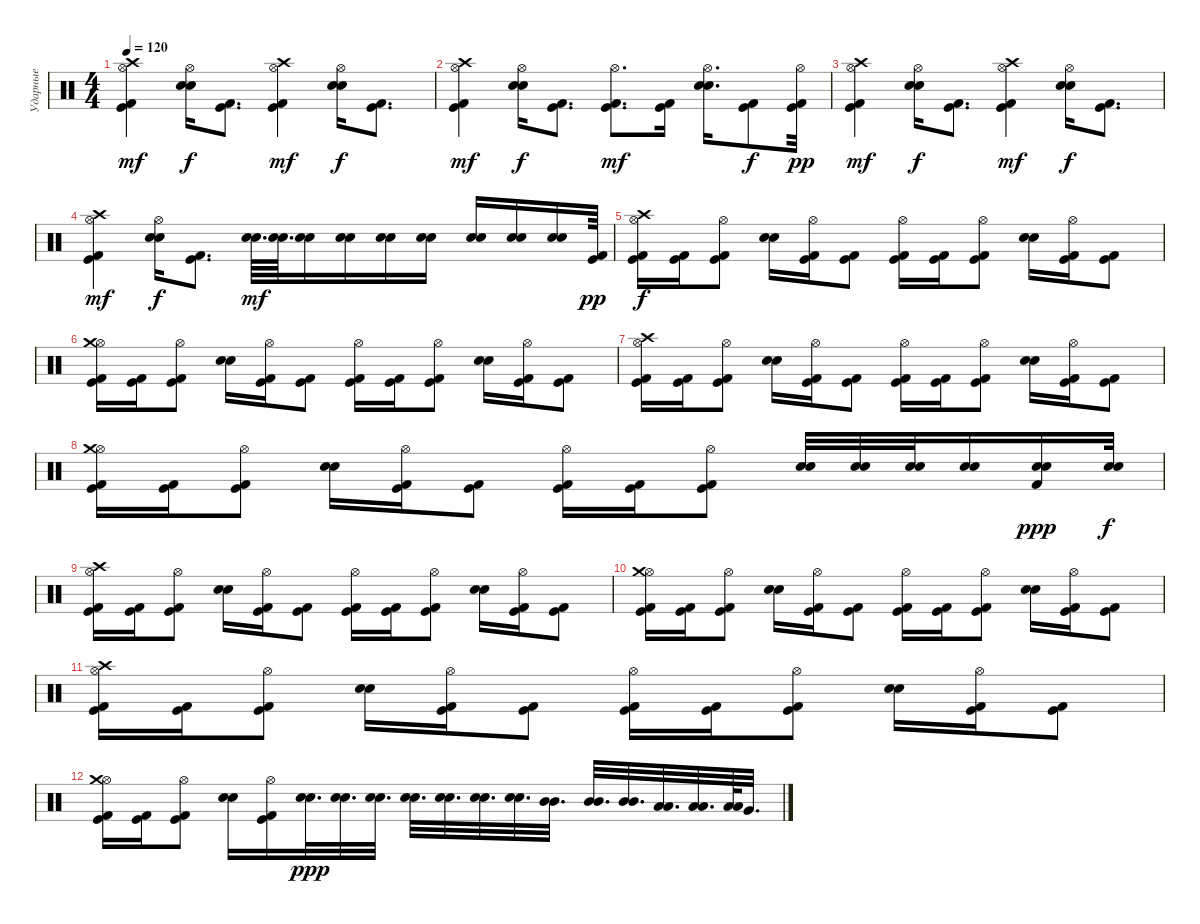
\track ("Ударные" "Ударные") {instrument percussion}
\staff {score}
\articulation defaults
\ts (4 4)
\tempo 120
\clef neutral
\ks c
("Kick (hit) 2" "Kick (hit)" "Hi-Hat (open)" "Crash high (hit)").4{dy mf} ("Snare (hit) 2" "Electric Snare (hit)" "Hi-Hat (open)").16{dy f} ("Kick (hit) 2" "Kick (hit)").8{d} ("Kick (hit) 2" "Kick (hit)" "Hi-Hat (open)" "Crash high (hit)").4{dy mf} ("Snare (hit) 2" "Electric Snare (hit)" "Hi-Hat (open)").16{dy f} ("Kick (hit) 2" "Kick (hit)").8{d} |
("Kick (hit) 2" "Kick (hit)" "Hi-Hat (open)" "Crash high (hit)").4{dy mf} ("Snare (hit) 2" "Electric Snare (hit)" "Hi-Hat (open)").16{dy f} ("Kick (hit) 2" "Kick (hit)").8{d} ("Kick (hit) 2" "Kick (hit)" "Hi-Hat (open)").8{d dy mf} ("Kick (hit) 2" "Kick (hit)").16 ("Snare (hit) 2" "Electric Snare (hit)" "Hi-Hat (open)").16{d} ("Kick (hit) 2" "Kick (hit)").8{dy f} ("Kick (hit) 2" "Kick (hit)" "Hi-Hat (open)").32{dy pp} |
("Kick (hit) 2" "Kick (hit)" "Hi-Hat (open)" "Crash high (hit)").4{dy mf} ("Snare (hit) 2" "Electric Snare (hit)" "Hi-Hat (open)").16{dy f} ("Kick (hit) 2" "Kick (hit)").8{d} ("Kick (hit) 2" "Kick (hit)" "Hi-Hat (open)" "Crash high (hit)").4{dy mf} ("Snare (hit) 2" "Electric Snare (hit)" "Hi-Hat (open)").16{dy f} ("Kick (hit) 2" "Kick (hit)").8{d} |
("Kick (hit) 2" "Kick (hit)" "Hi-Hat (open)" "Crash high (hit)").4{dy mf} ("Snare (hit) 2" "Electric Snare (hit)" "Hi-Hat (open)").16{dy f} ("Kick (hit) 2" "Kick (hit)").8{d} ("Snare (hit) 2" "Electric Snare (hit)").64{d dy mf} ("Snare (hit) 2" "Electric Snare (hit)").64{d} ("Snare (hit) 2" "Electric Snare (hit)").16 ("Snare (hit) 2" "Electric Snare (hit)").16 ("Snare (hit) 2" "Electric Snare (hit)").16 ("Snare (hit) 2" "Electric Snare (hit)").16 ("Snare (hit) 2" "Electric Snare (hit)").16 ("Snare (hit) 2" "Electric Snare (hit)").16 ("Snare (hit) 2" "Electric Snare (hit)").16 ("Kick (hit) 2" "Kick (hit)").64{dy pp} |
("Kick (hit) 2" "Kick (hit)" "Hi-Hat (open)" "Crash high (hit)").16{dy f} ("Kick (hit) 2" "Kick (hit)").16 ("Kick (hit) 2" "Kick (hit)" "Hi-Hat (open)").8 ("Snare (hit) 2" "Electric Snare (hit)").16 ("Kick (hit) 2" "Kick (hit)" "Hi-Hat (open)").16 ("Kick (hit) 2" "Kick (hit)").8 ("Kick (hit) 2" "Kick (hit)" "Hi-Hat (open)").16 ("Kick (hit)" "Kick (hit) 2").16 ("Kick (hit)" "Kick (hit) 2" "Hi-Hat (open)").8 ("Snare (hit) 2" "Electric Snare (hit)").16 ("Kick (hit) 2" "Kick (hit)" "Hi-Hat (open)").16 ("Kick (hit) 2" "Kick (hit)").8 |
("Kick (hit) 2" "Kick (hit)" "Hi-Hat (open)" "Crash medium (hit)").16 ("Kick (hit) 2" "Kick (hit)").16 ("Kick (hit) 2" "Kick (hit)" "Hi-Hat (open)").8 ("Snare (hit) 2" "Electric Snare (hit)").16 ("Kick (hit) 2" "Kick (hit)" "Hi-Hat (open)").16 ("Kick (hit) 2" "Kick (hit)").8 ("Kick (hit) 2" "Kick (hit)" "Hi-Hat (open)").16 ("Kick (hit)" "Kick (hit) 2").16 ("Kick (hit)" "Kick (hit) 2" "Hi-Hat (open)").8 ("Snare (hit) 2" "Electric Snare (hit)").16 ("Kick (hit) 2" "Kick (hit)" "Hi-Hat (open)").16 ("Kick (hit) 2" "Kick (hit)").8 |
("Kick (hit) 2" "Kick (hit)" "Hi-Hat (open)" "Crash high (hit)").16 ("Kick (hit) 2" "Kick (hit)").16 ("Kick (hit) 2" "Kick (hit)" "Hi-Hat (open)").8 ("Snare (hit) 2" "Electric Snare (hit)").16 ("Kick (hit) 2" "Kick (hit)" "Hi-Hat (open)").16 ("Kick (hit) 2" "Kick (hit)").8 ("Kick (hit) 2" "Kick (hit)" "Hi-Hat (open)").16 ("Kick (hit)" "Kick (hit) 2").16 ("Kick (hit)" "Kick (hit) 2" "Hi-Hat (open)").8 ("Snare (hit) 2" "Electric Snare (hit)").16 ("Kick (hit) 2" "Kick (hit)" "Hi-Hat (open)").16 ("Kick (hit) 2" "Kick (hit)").8 |
("Kick (hit) 2" "Kick (hit)" "Hi-Hat (open)" "Crash medium (hit)").16 ("Kick (hit) 2" "Kick (hit)").16 ("Kick (hit) 2" "Kick (hit)" "Hi-Hat (open)").8 ("Snare (hit) 2" "Electric Snare (hit)").16 ("Kick (hit) 2" "Kick (hit)" "Hi-Hat (open)").16 ("Kick (hit) 2" "Kick (hit)").8 ("Kick (hit) 2" "Kick (hit)" "Hi-Hat (open)").16 ("Kick (hit)" "Kick (hit) 2").16 ("Kick (hit)" "Kick (hit) 2" "Hi-Hat (open)").8 ("Snare (hit) 2" "Electric Snare (hit)").32 ("Snare (hit) 2" "Electric Snare (hit)").32 ("Snare (hit) 2" "Electric Snare (hit)").32 ("Snare (hit) 2" "Electric Snare (hit)").16 ("Kick (hit) 2" "Snare (hit) 2" "Electric Snare (hit)").16{dy ppp} ("Snare (hit) 2" "Electric Snare (hit)").32{dy f} |
("Kick (hit) 2" "Kick (hit)" "Hi-Hat (open)" "Crash high (hit)").16 ("Kick (hit) 2" "Kick (hit)").16 ("Kick (hit) 2" "Kick (hit)" "Hi-Hat (open)").8 ("Snare (hit) 2" "Electric Snare (hit)").16 ("Kick (hit) 2" "Kick (hit)" "Hi-Hat (open)").16 ("Kick (hit) 2" "Kick (hit)").8 ("Kick (hit) 2" "Kick (hit)" "Hi-Hat (open)").16 ("Kick (hit)" "Kick (hit) 2").16 ("Kick (hit)" "Kick (hit) 2" "Hi-Hat (open)").8 ("Snare (hit) 2" "Electric Snare (hit)").16 ("Kick (hit) 2" "Kick (hit)" "Hi-Hat (open)").16 ("Kick (hit) 2" "Kick (hit)").8 |
("Kick (hit) 2" "Kick (hit)" "Hi-Hat (open)" "Crash medium (hit)").16 ("Kick (hit) 2" "Kick (hit)").16 ("Kick (hit) 2" "Kick (hit)" "Hi-Hat (open)").8 ("Snare (hit) 2" "Electric Snare (hit)").16 ("Kick (hit) 2" "Kick (hit)" "Hi-Hat (open)").16 ("Kick (hit) 2" "Kick (hit)").8 ("Kick (hit) 2" "Kick (hit)" "Hi-Hat (open)").16 ("Kick (hit)" "Kick (hit) 2").16 ("Kick (hit)" "Kick (hit) 2" "Hi-Hat (open)").8 ("Snare (hit) 2" "Electric Snare (hit)").16 ("Kick (hit) 2" "Kick (hit)" "Hi-Hat (open)").16 ("Kick (hit) 2" "Kick (hit)").8 |
("Kick (hit) 2" "Kick (hit)" "Hi-Hat (open)" "Crash high (hit)").16 ("Kick (hit) 2" "Kick (hit)").16 ("Kick (hit) 2" "Kick (hit)" "Hi-Hat (open)").8 ("Snare (hit) 2" "Electric Snare (hit)").16 ("Kick (hit) 2" "Kick (hit)" "Hi-Hat (open)").16 ("Kick (hit) 2" "Kick (hit)").8 ("Kick (hit) 2" "Kick (hit)" "Hi-Hat (open)").16 ("Kick (hit)" "Kick (hit) 2").16 ("Kick (hit)" "Kick (hit) 2" "Hi-Hat (open)").8 ("Snare (hit) 2" "Electric Snare (hit)").16 ("Kick (hit) 2" "Kick (hit)" "Hi-Hat (open)").16 ("Kick (hit) 2" "Kick (hit)").8 |
("Kick (hit) 2" "Kick (hit)" "Hi-Hat (open)" "Crash medium (hit)").16 ("Kick (hit) 2" "Kick (hit)").16 ("Kick (hit) 2" "Kick (hit)" "Hi-Hat (open)").8 ("Snare (hit) 2" "Electric Snare (hit)").16 ("Kick (hit) 2" "Kick (hit)" "Hi-Hat (open)").16 ("Snare (hit) 2" "Electric Snare (hit)").32{d dy ppp} ("Snare (hit) 2" "Electric Snare (hit)").32{d} ("Snare (hit) 2" "Electric Snare (hit)").32{d} ("Snare (hit) 2" "Electric Snare (hit)").32{d} ("Snare (hit) 2" "Electric Snare (hit)").32{d} ("Snare (hit) 2" "Electric Snare (hit)").32{d} ("Snare (hit) 2" "Electric Snare (hit)").32{d} ("Mid Tom (hit)" "Mid Tom (hit)").32{d} ("Mid Tom (hit)" "Mid Tom (hit)").32{d} ("Mid Tom (hit)" "Mid Tom (hit)").32{d} ("Low Tom (hit)" "Low Tom (hit)").32{d} ("Low Tom (hit)" "Low Tom (hit)").32{d} ("Low Tom (hit)" "Low Tom (hit)").64 "Very Low Tom (hit)".32{d}
